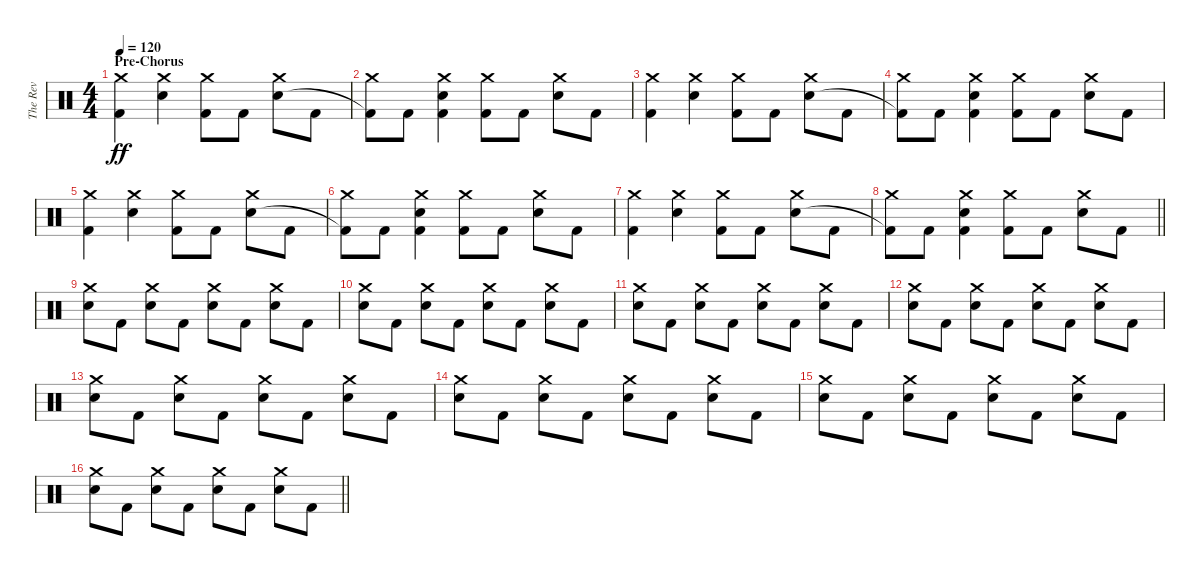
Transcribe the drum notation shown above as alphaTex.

\track ("The Rev" "The Rev") {instrument percussion}
\staff {score}
\articulation defaults
\ts (4 4)
\section ("" "Pre-Chorus")
\tempo 120
\clef neutral
\ks c
("Crash medium (hit)" "Kick (hit) 2").4{dy ff} ("Crash medium (hit)" "Electric Snare (hit)").4 ("Crash medium (hit)" "Kick (hit) 2").8 "Kick (hit) 2".8 ("Crash medium (hit)" "Electric Snare (hit)").8 "Kick (hit) 2".8 |
("Crash medium (hit)" "Kick (hit) 2"{t}).8 "Kick (hit) 2".8 ("Crash medium (hit)" "Electric Snare (hit)" "Kick (hit) 2").4 ("Crash medium (hit)" "Kick (hit) 2").8 "Kick (hit) 2".8 ("Crash medium (hit)" "Electric Snare (hit)").8 "Kick (hit) 2".8 |
("Crash medium (hit)" "Kick (hit) 2").4 ("Crash medium (hit)" "Electric Snare (hit)").4 ("Crash medium (hit)" "Kick (hit) 2").8 "Kick (hit) 2".8 ("Crash medium (hit)" "Electric Snare (hit)").8 "Kick (hit) 2".8 |
("Crash medium (hit)" "Kick (hit) 2"{t}).8 "Kick (hit) 2".8 ("Crash medium (hit)" "Electric Snare (hit)" "Kick (hit) 2").4 ("Crash medium (hit)" "Kick (hit) 2").8 "Kick (hit) 2".8 ("Crash medium (hit)" "Electric Snare (hit)").8 "Kick (hit) 2".8 |
("Crash medium (hit)" "Kick (hit) 2").4 ("Crash medium (hit)" "Electric Snare (hit)").4 ("Crash medium (hit)" "Kick (hit) 2").8 "Kick (hit) 2".8 ("Crash medium (hit)" "Electric Snare (hit)").8 "Kick (hit) 2".8 |
("Crash medium (hit)" "Kick (hit) 2"{t}).8 "Kick (hit) 2".8 ("Crash medium (hit)" "Electric Snare (hit)" "Kick (hit) 2").4 ("Crash medium (hit)" "Kick (hit) 2").8 "Kick (hit) 2".8 ("Crash medium (hit)" "Electric Snare (hit)").8 "Kick (hit) 2".8 |
("Crash medium (hit)" "Kick (hit) 2").4 ("Crash medium (hit)" "Electric Snare (hit)").4 ("Crash medium (hit)" "Kick (hit) 2").8 "Kick (hit) 2".8 ("Crash medium (hit)" "Electric Snare (hit)").8 "Kick (hit) 2".8 |
\barLineRight lightlight
("Crash medium (hit)" "Kick (hit) 2"{t}).8 "Kick (hit) 2".8 ("Crash medium (hit)" "Electric Snare (hit)" "Kick (hit) 2").4 ("Crash medium (hit)" "Kick (hit) 2").8 "Kick (hit) 2".8 ("Crash medium (hit)" "Electric Snare (hit)").8 "Kick (hit) 2".8 |
("Crash medium (hit)" "Electric Snare (hit)").8 "Kick (hit) 2".8 ("Crash medium (hit)" "Electric Snare (hit)").8 "Kick (hit) 2".8 ("Crash medium (hit)" "Electric Snare (hit)").8 "Kick (hit) 2".8 ("Crash medium (hit)" "Electric Snare (hit)").8 "Kick (hit) 2".8 |
("Crash medium (hit)" "Electric Snare (hit)").8 "Kick (hit) 2".8 ("Crash medium (hit)" "Electric Snare (hit)").8 "Kick (hit) 2".8 ("Crash medium (hit)" "Electric Snare (hit)").8 "Kick (hit) 2".8 ("Crash medium (hit)" "Electric Snare (hit)").8 "Kick (hit) 2".8 |
("Crash medium (hit)" "Electric Snare (hit)").8 "Kick (hit) 2".8 ("Crash medium (hit)" "Electric Snare (hit)").8 "Kick (hit) 2".8 ("Crash medium (hit)" "Electric Snare (hit)").8 "Kick (hit) 2".8 ("Crash medium (hit)" "Electric Snare (hit)").8 "Kick (hit) 2".8 |
("Crash medium (hit)" "Electric Snare (hit)").8 "Kick (hit) 2".8 ("Crash medium (hit)" "Electric Snare (hit)").8 "Kick (hit) 2".8 ("Crash medium (hit)" "Electric Snare (hit)").8 "Kick (hit) 2".8 ("Crash medium (hit)" "Electric Snare (hit)").8 "Kick (hit) 2".8 |
("Crash medium (hit)" "Electric Snare (hit)").8 "Kick (hit) 2".8 ("Crash medium (hit)" "Electric Snare (hit)").8 "Kick (hit) 2".8 ("Crash medium (hit)" "Electric Snare (hit)").8 "Kick (hit) 2".8 ("Crash medium (hit)" "Electric Snare (hit)").8 "Kick (hit) 2".8 |
("Crash medium (hit)" "Electric Snare (hit)").8 "Kick (hit) 2".8 ("Crash medium (hit)" "Electric Snare (hit)").8 "Kick (hit) 2".8 ("Crash medium (hit)" "Electric Snare (hit)").8 "Kick (hit) 2".8 ("Crash medium (hit)" "Electric Snare (hit)").8 "Kick (hit) 2".8 |
("Crash medium (hit)" "Electric Snare (hit)").8 "Kick (hit) 2".8 ("Crash medium (hit)" "Electric Snare (hit)").8 "Kick (hit) 2".8 ("Crash medium (hit)" "Electric Snare (hit)").8 "Kick (hit) 2".8 ("Crash medium (hit)" "Electric Snare (hit)").8 "Kick (hit) 2".8 |
\barLineRight lightlight
("Crash medium (hit)" "Electric Snare (hit)").8 "Kick (hit) 2".8 ("Crash medium (hit)" "Electric Snare (hit)").8 "Kick (hit) 2".8 ("Crash medium (hit)" "Electric Snare (hit)").8 "Kick (hit) 2".8 ("Crash medium (hit)" "Electric Snare (hit)").8 "Kick (hit) 2".8
